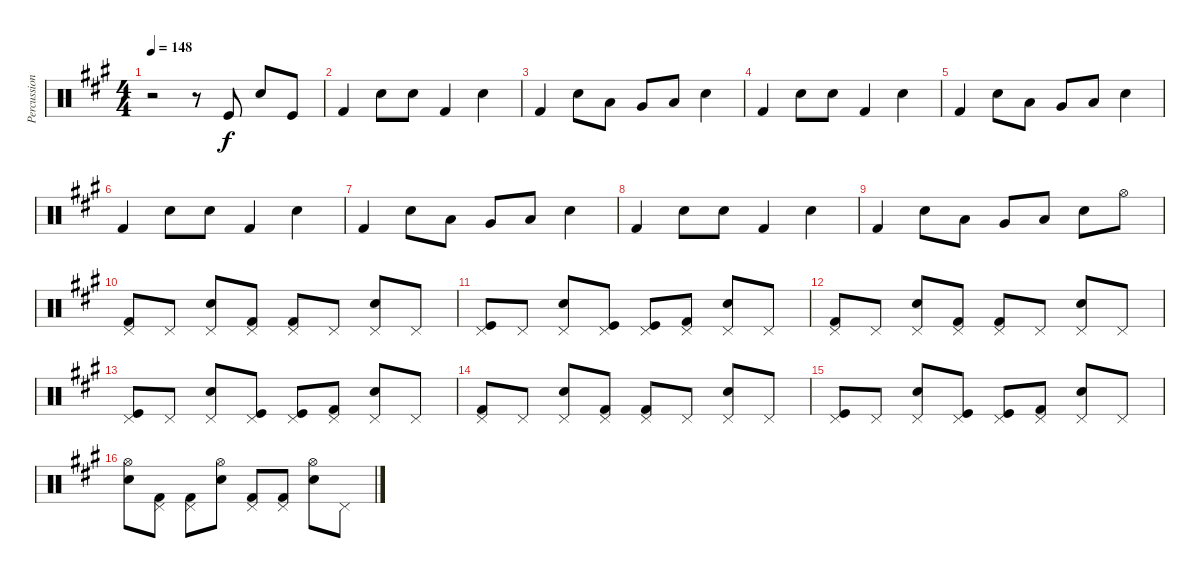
\track ("Percussion" "Percussion") {instrument percussion}
\staff {score}
\articulation defaults
\ts (4 4)
\tempo 148
\clef neutral
\ks a
r.2{dy f} r.8 "Kick (hit)".8 "Electric Snare (hit)".8 "Kick (hit)".8 |
"Kick (hit) 2".4 "Electric Snare (hit)".8 "Electric Snare (hit)".8 "Kick (hit) 2".4 "Electric Snare (hit)".4 |
"Kick (hit) 2".4 "Electric Snare (hit)".8 "Low Tom (hit)".8 "Very Low Tom (hit)".8 "Low Floor Tom (hit)".8 "Electric Snare (hit)".4 |
"Kick (hit) 2".4 "Electric Snare (hit)".8 "Electric Snare (hit)".8 "Kick (hit) 2".4 "Electric Snare (hit)".4 |
"Kick (hit) 2".4 "Electric Snare (hit)".8 "Low Tom (hit)".8 "Very Low Tom (hit)".8 "Low Floor Tom (hit)".8 "Electric Snare (hit)".4 |
"Kick (hit) 2".4 "Electric Snare (hit)".8 "Electric Snare (hit)".8 "Kick (hit) 2".4 "Electric Snare (hit)".4 |
"Kick (hit) 2".4 "Electric Snare (hit)".8 "Low Tom (hit)".8 "Very Low Tom (hit)".8 "Low Floor Tom (hit)".8 "Electric Snare (hit)".4 |
"Kick (hit) 2".4 "Electric Snare (hit)".8 "Electric Snare (hit)".8 "Kick (hit) 2".4 "Electric Snare (hit)".4 |
"Kick (hit) 2".4 "Electric Snare (hit)".8 "Low Tom (hit)".8 "Very Low Tom (hit)".8 "Low Floor Tom (hit)".8 "Electric Snare (hit)".8 "Hi-Hat (open)".8 |
("Pedal Hi-Hat (hit)" "Kick (hit) 2").8 "Pedal Hi-Hat (hit)".8 ("Pedal Hi-Hat (hit)" "Electric Snare (hit)").8 ("Pedal Hi-Hat (hit)" "Kick (hit) 2").8 ("Pedal Hi-Hat (hit)" "Kick (hit) 2").8 "Pedal Hi-Hat (hit)".8 ("Pedal Hi-Hat (hit)" "Electric Snare (hit)").8 "Pedal Hi-Hat (hit)".8 |
("Pedal Hi-Hat (hit)" "Kick (hit)").8 "Pedal Hi-Hat (hit)".8 ("Pedal Hi-Hat (hit)" "Electric Snare (hit)").8 ("Pedal Hi-Hat (hit)" "Kick (hit)").8 ("Pedal Hi-Hat (hit)" "Kick (hit)").8 ("Pedal Hi-Hat (hit)" "Kick (hit) 2").8 ("Pedal Hi-Hat (hit)" "Electric Snare (hit)").8 "Pedal Hi-Hat (hit)".8 |
("Pedal Hi-Hat (hit)" "Kick (hit) 2").8 "Pedal Hi-Hat (hit)".8 ("Pedal Hi-Hat (hit)" "Electric Snare (hit)").8 ("Pedal Hi-Hat (hit)" "Kick (hit) 2").8 ("Pedal Hi-Hat (hit)" "Kick (hit) 2").8 "Pedal Hi-Hat (hit)".8 ("Pedal Hi-Hat (hit)" "Electric Snare (hit)").8 "Pedal Hi-Hat (hit)".8 |
("Pedal Hi-Hat (hit)" "Kick (hit)").8 "Pedal Hi-Hat (hit)".8 ("Pedal Hi-Hat (hit)" "Electric Snare (hit)").8 ("Pedal Hi-Hat (hit)" "Kick (hit)").8 ("Pedal Hi-Hat (hit)" "Kick (hit)").8 ("Pedal Hi-Hat (hit)" "Kick (hit) 2").8 ("Pedal Hi-Hat (hit)" "Electric Snare (hit)").8 "Pedal Hi-Hat (hit)".8 |
("Pedal Hi-Hat (hit)" "Kick (hit) 2").8 "Pedal Hi-Hat (hit)".8 ("Pedal Hi-Hat (hit)" "Electric Snare (hit)").8 ("Pedal Hi-Hat (hit)" "Kick (hit) 2").8 ("Pedal Hi-Hat (hit)" "Kick (hit) 2").8 "Pedal Hi-Hat (hit)".8 ("Pedal Hi-Hat (hit)" "Electric Snare (hit)").8 "Pedal Hi-Hat (hit)".8 |
("Pedal Hi-Hat (hit)" "Kick (hit)").8 "Pedal Hi-Hat (hit)".8 ("Pedal Hi-Hat (hit)" "Electric Snare (hit)").8 ("Pedal Hi-Hat (hit)" "Kick (hit)").8 ("Pedal Hi-Hat (hit)" "Kick (hit)").8 ("Pedal Hi-Hat (hit)" "Kick (hit) 2").8 ("Pedal Hi-Hat (hit)" "Electric Snare (hit)").8 "Pedal Hi-Hat (hit)".8 |
("Hi-Hat (open)" "Electric Snare (hit)").8 ("Pedal Hi-Hat (hit)" "Kick (hit) 2").8 ("Pedal Hi-Hat (hit)" "Kick (hit) 2").8 ("Hi-Hat (open)" "Electric Snare (hit)").8 ("Pedal Hi-Hat (hit)" "Kick (hit) 2").8 ("Pedal Hi-Hat (hit)" "Kick (hit) 2").8 ("Hi-Hat (open)" "Electric Snare (hit)").8 "Pedal Hi-Hat (hit)".8
